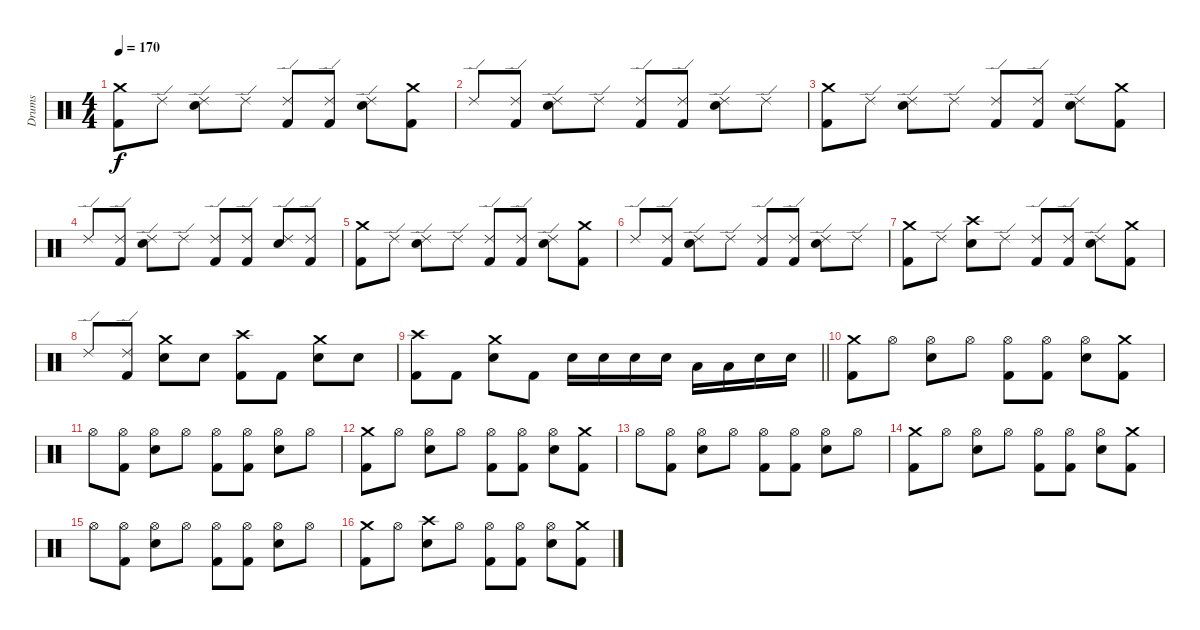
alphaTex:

\track ("Drums" "Drums") {instrument percussion}
\staff {score}
\articulation defaults
\ts (4 4)
\tempo 170
\clef neutral
\ks c
("Crash medium (hit)" "Kick (hit) 2").8{dy f} "Ride (edge) 2".8 ("Ride (edge) 2" "Electric Snare (hit)").8 "Ride (edge) 2".8 ("Ride (edge) 2" "Kick (hit) 2").8 ("Ride (edge) 2" "Kick (hit) 2").8 ("Ride (edge) 2" "Electric Snare (hit)").8 ("Crash medium (hit)" "Kick (hit) 2").8 |
"Ride (edge) 2".8 ("Ride (edge) 2" "Kick (hit) 2").8 ("Ride (edge) 2" "Electric Snare (hit)").8 "Ride (edge) 2".8 ("Ride (edge) 2" "Kick (hit) 2").8 ("Ride (edge) 2" "Kick (hit) 2").8 ("Ride (edge) 2" "Electric Snare (hit)").8 "Ride (edge) 2".8 |
("Crash medium (hit)" "Kick (hit) 2").8 "Ride (edge) 2".8 ("Ride (edge) 2" "Electric Snare (hit)").8 "Ride (edge) 2".8 ("Ride (edge) 2" "Kick (hit) 2").8 ("Ride (edge) 2" "Kick (hit) 2").8 ("Ride (edge) 2" "Electric Snare (hit)").8 ("Crash medium (hit)" "Kick (hit) 2").8 |
"Ride (edge) 2".8 ("Ride (edge) 2" "Kick (hit) 2").8 ("Ride (edge) 2" "Electric Snare (hit)").8 "Ride (edge) 2".8 ("Ride (edge) 2" "Kick (hit) 2").8 ("Ride (edge) 2" "Kick (hit) 2").8 ("Ride (edge) 2" "Electric Snare (hit)").8 ("Ride (edge) 2" "Kick (hit) 2").8 |
("Crash medium (hit)" "Kick (hit) 2").8 "Ride (edge) 2".8 ("Ride (edge) 2" "Electric Snare (hit)").8 "Ride (edge) 2".8 ("Ride (edge) 2" "Kick (hit) 2").8 ("Ride (edge) 2" "Kick (hit) 2").8 ("Ride (edge) 2" "Electric Snare (hit)").8 ("Crash medium (hit)" "Kick (hit) 2").8 |
"Ride (edge) 2".8 ("Ride (edge) 2" "Kick (hit) 2").8 ("Ride (edge) 2" "Electric Snare (hit)").8 "Ride (edge) 2".8 ("Ride (edge) 2" "Kick (hit) 2").8 ("Ride (edge) 2" "Kick (hit) 2").8 ("Ride (edge) 2" "Electric Snare (hit)").8 "Ride (edge) 2".8 |
("Crash medium (hit)" "Kick (hit) 2").8 "Ride (edge) 2".8 ("Crash high (hit)" "Electric Snare (hit)").8 "Ride (edge) 2".8 ("Ride (edge) 2" "Kick (hit) 2").8 ("Ride (edge) 2" "Kick (hit) 2").8 ("Ride (edge) 2" "Electric Snare (hit)").8 ("Crash medium (hit)" "Kick (hit) 2").8 |
"Ride (edge) 2".8 ("Ride (edge) 2" "Kick (hit) 2").8 ("Crash medium (hit)" "Electric Snare (hit)").8 "Electric Snare (hit)".8 ("Crash high (hit)" "Kick (hit) 2").8 "Kick (hit) 2".8 ("Crash medium (hit)" "Electric Snare (hit)").8 "Electric Snare (hit)".8 |
\barLineRight lightlight
("Crash high (hit)" "Kick (hit) 2").8 "Kick (hit) 2".8 ("Crash medium (hit)" "Electric Snare (hit)").8 "Kick (hit) 2".8 "Electric Snare (hit)".16 "Electric Snare (hit)".16 "Electric Snare (hit)".16 "Electric Snare (hit)".16 "Low Tom (hit)".16 "Low Tom (hit)".16 "Electric Snare (hit)".16 "Electric Snare (hit)".16 |
("Crash medium (hit)" "Kick (hit) 2").8 "Hi-Hat (open)".8 ("Hi-Hat (open)" "Electric Snare (hit)").8 "Hi-Hat (open)".8 ("Hi-Hat (open)" "Kick (hit) 2").8 ("Hi-Hat (open)" "Kick (hit) 2").8 ("Hi-Hat (open)" "Electric Snare (hit)").8 ("Crash medium (hit)" "Kick (hit) 2").8 |
"Hi-Hat (open)".8 ("Hi-Hat (open)" "Kick (hit) 2").8 ("Hi-Hat (open)" "Electric Snare (hit)").8 "Hi-Hat (open)".8 ("Hi-Hat (open)" "Kick (hit) 2").8 ("Hi-Hat (open)" "Kick (hit) 2").8 ("Hi-Hat (open)" "Electric Snare (hit)").8 "Hi-Hat (open)".8 |
("Crash medium (hit)" "Kick (hit) 2").8 "Hi-Hat (open)".8 ("Hi-Hat (open)" "Electric Snare (hit)").8 "Hi-Hat (open)".8 ("Hi-Hat (open)" "Kick (hit) 2").8 ("Hi-Hat (open)" "Kick (hit) 2").8 ("Hi-Hat (open)" "Electric Snare (hit)").8 ("Crash medium (hit)" "Kick (hit) 2").8 |
"Hi-Hat (open)".8 ("Hi-Hat (open)" "Kick (hit) 2").8 ("Hi-Hat (open)" "Electric Snare (hit)").8 "Hi-Hat (open)".8 ("Hi-Hat (open)" "Kick (hit) 2").8 ("Hi-Hat (open)" "Kick (hit) 2").8 ("Hi-Hat (open)" "Electric Snare (hit)").8 "Hi-Hat (open)".8 |
("Crash medium (hit)" "Kick (hit) 2").8 "Hi-Hat (open)".8 ("Hi-Hat (open)" "Electric Snare (hit)").8 "Hi-Hat (open)".8 ("Hi-Hat (open)" "Kick (hit) 2").8 ("Hi-Hat (open)" "Kick (hit) 2").8 ("Hi-Hat (open)" "Electric Snare (hit)").8 ("Crash medium (hit)" "Kick (hit) 2").8 |
"Hi-Hat (open)".8 ("Hi-Hat (open)" "Kick (hit) 2").8 ("Hi-Hat (open)" "Electric Snare (hit)").8 "Hi-Hat (open)".8 ("Hi-Hat (open)" "Kick (hit) 2").8 ("Hi-Hat (open)" "Kick (hit) 2").8 ("Hi-Hat (open)" "Electric Snare (hit)").8 "Hi-Hat (open)".8 |
("Crash medium (hit)" "Kick (hit) 2").8 "Hi-Hat (open)".8 ("Crash high (hit)" "Electric Snare (hit)").8 "Hi-Hat (open)".8 ("Hi-Hat (open)" "Kick (hit) 2").8 ("Hi-Hat (open)" "Kick (hit) 2").8 ("Hi-Hat (open)" "Electric Snare (hit)").8 ("Crash medium (hit)" "Kick (hit) 2").8
